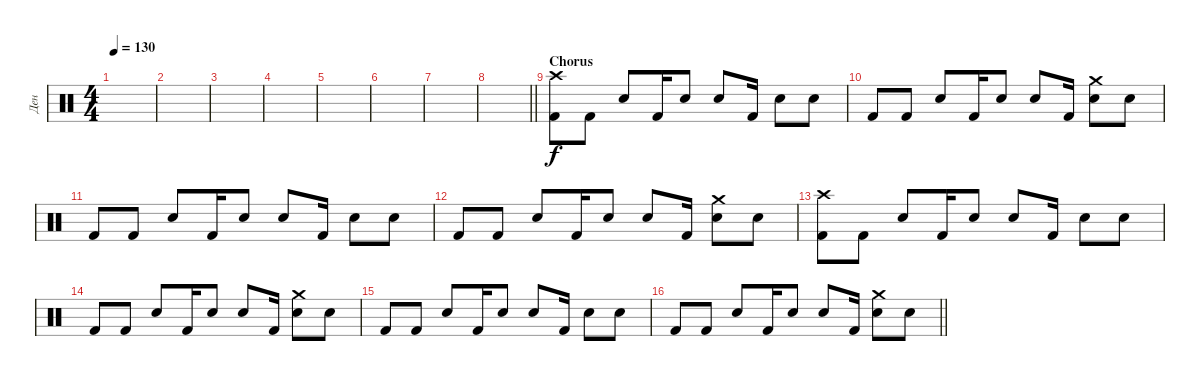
\track ("Ден" "Ден") {instrument percussion}
\staff {score}
\articulation defaults
\ts (4 4)
\tempo 130
\clef neutral
\ks c
|
|
|
|
|
|
|
\barLineRight lightlight
|
\section ("" "Chorus")
("Crash high (hit)" "Kick (hit) 2").8 "Kick (hit) 2".8 "Snare (hit) 2".8 "Kick (hit) 2".16 "Snare (hit) 2".8 "Snare (hit) 2".8 "Kick (hit) 2".16 "Snare (hit) 2".8 "Snare (hit)".8 |
"Kick (hit) 2".8 "Kick (hit) 2".8 "Snare (hit) 2".8 "Kick (hit) 2".16 "Snare (hit) 2".8 "Snare (hit) 2".8 "Kick (hit) 2".16 ("Crash medium (hit)" "Snare (hit) 2").8 "Snare (hit)".8 |
"Kick (hit) 2".8 "Kick (hit) 2".8 "Snare (hit) 2".8 "Kick (hit) 2".16 "Snare (hit) 2".8 "Snare (hit) 2".8 "Kick (hit) 2".16 "Snare (hit) 2".8 "Snare (hit)".8 |
"Kick (hit) 2".8 "Kick (hit) 2".8 "Snare (hit) 2".8 "Kick (hit) 2".16 "Snare (hit) 2".8 "Snare (hit) 2".8 "Kick (hit) 2".16 ("Crash medium (hit)" "Snare (hit) 2").8 "Snare (hit)".8 |
("Crash high (hit)" "Kick (hit) 2").8 "Kick (hit) 2".8 "Snare (hit) 2".8 "Kick (hit) 2".16 "Snare (hit) 2".8 "Snare (hit) 2".8 "Kick (hit) 2".16 "Snare (hit) 2".8 "Snare (hit)".8 |
"Kick (hit) 2".8 "Kick (hit) 2".8 "Snare (hit) 2".8 "Kick (hit) 2".16 "Snare (hit) 2".8 "Snare (hit) 2".8 "Kick (hit) 2".16 ("Crash medium (hit)" "Snare (hit) 2").8 "Snare (hit)".8 |
"Kick (hit) 2".8 "Kick (hit) 2".8 "Snare (hit) 2".8 "Kick (hit) 2".16 "Snare (hit) 2".8 "Snare (hit) 2".8 "Kick (hit) 2".16 "Snare (hit) 2".8 "Snare (hit)".8 |
\barLineRight lightlight "Kick (hit) 2".8 "Kick (hit) 2".8 "Snare (hit) 2".8 "Kick (hit) 2".16 "Snare (hit) 2".8 "Snare (hit) 2".8 "Kick (hit) 2".16
("Crash medium (hit)" "Snare (hit) 2").8 "Snare (hit)".8
